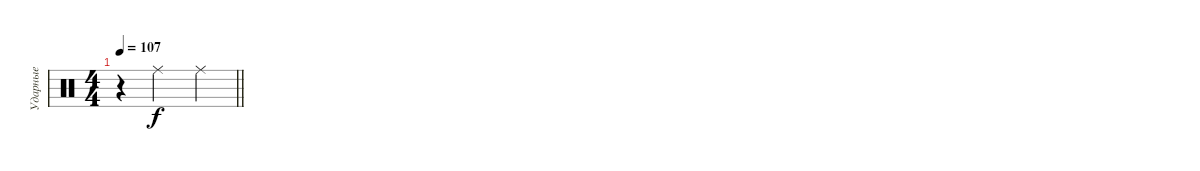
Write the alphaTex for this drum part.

\track ("Ударные" "Ударные") {instrument percussion}
\staff {score}
\articulation defaults
\ts (4 4)
\tempo 107
\clef neutral
\barLineRight lightlight
\ks c
r.4{dy f} "Ride (middle)".2 "Ride (middle)".4
